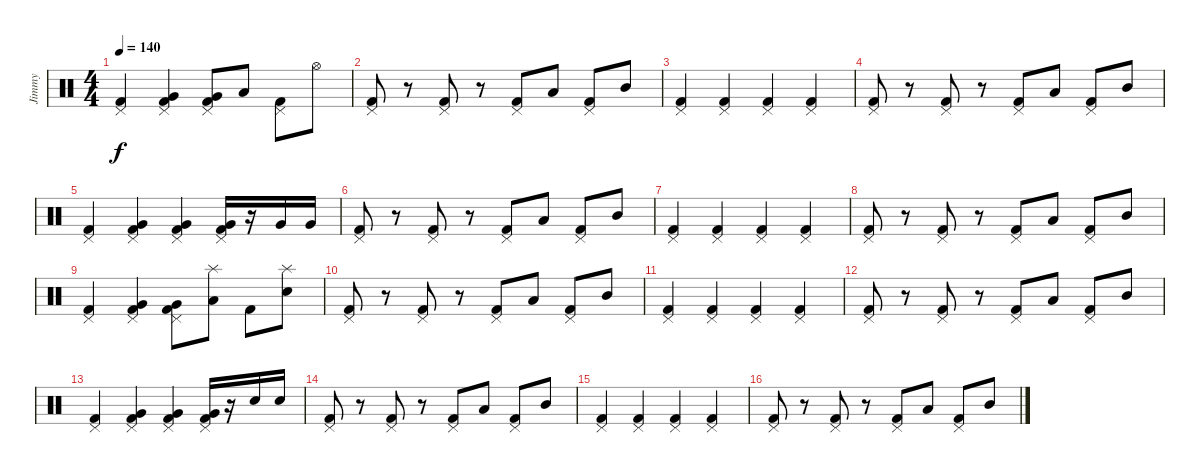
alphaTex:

\track ("Jimmy" "Jimmy") {instrument percussion}
\staff {score}
\articulation defaults
\ts (4 4)
\tempo 140
\clef neutral
\ks c
("Kick (hit) 2" "Pedal Hi-Hat (hit)").4{dy f} ("Kick (hit) 2" "Pedal Hi-Hat (hit)" "Very Low Tom (hit)").4 ("Kick (hit) 2" "Pedal Hi-Hat (hit)" "Very Low Tom (hit)").8 "Low Tom (hit)".8 ("Kick (hit) 2" "Pedal Hi-Hat (hit)").8 "Hi-Hat (open)".8 |
("Kick (hit) 2" "Pedal Hi-Hat (hit)").8 r.8 ("Kick (hit) 2" "Pedal Hi-Hat (hit)").8 r.8 ("Kick (hit) 2" "Pedal Hi-Hat (hit)").8 "Low Tom (hit)".8 ("Kick (hit) 2" "Pedal Hi-Hat (hit)").8 "Mid Tom (hit)".8 |
("Kick (hit) 2" "Pedal Hi-Hat (hit)").4 ("Kick (hit) 2" "Pedal Hi-Hat (hit)").4 ("Kick (hit) 2" "Pedal Hi-Hat (hit)").4 ("Kick (hit) 2" "Pedal Hi-Hat (hit)").4 |
("Kick (hit) 2" "Pedal Hi-Hat (hit)").8 r.8 ("Kick (hit) 2" "Pedal Hi-Hat (hit)").8 r.8 ("Kick (hit) 2" "Pedal Hi-Hat (hit)").8 "Low Tom (hit)".8 ("Kick (hit) 2" "Pedal Hi-Hat (hit)").8 "Mid Tom (hit)".8 |
("Kick (hit) 2" "Pedal Hi-Hat (hit)").4 ("Kick (hit) 2" "Pedal Hi-Hat (hit)" "Very Low Tom (hit)").4 ("Kick (hit) 2" "Pedal Hi-Hat (hit)" "Very Low Tom (hit)").4 ("Kick (hit) 2" "Pedal Hi-Hat (hit)" "Very Low Tom (hit)").16 r.16 "Very Low Tom (hit)".16 "Very Low Tom (hit)".16 |
("Kick (hit) 2" "Pedal Hi-Hat (hit)").8 r.8 ("Kick (hit) 2" "Pedal Hi-Hat (hit)").8 r.8 ("Kick (hit) 2" "Pedal Hi-Hat (hit)").8 "Low Tom (hit)".8 ("Kick (hit) 2" "Pedal Hi-Hat (hit)").8 "Mid Tom (hit)".8 |
("Kick (hit) 2" "Pedal Hi-Hat (hit)").4 ("Kick (hit) 2" "Pedal Hi-Hat (hit)").4 ("Kick (hit) 2" "Pedal Hi-Hat (hit)").4 ("Kick (hit) 2" "Pedal Hi-Hat (hit)").4 |
("Kick (hit) 2" "Pedal Hi-Hat (hit)").8 r.8 ("Kick (hit) 2" "Pedal Hi-Hat (hit)").8 r.8 ("Kick (hit) 2" "Pedal Hi-Hat (hit)").8 "Low Tom (hit)".8 ("Kick (hit) 2" "Pedal Hi-Hat (hit)").8 "Mid Tom (hit)".8 |
("Kick (hit) 2" "Pedal Hi-Hat (hit)").4 ("Kick (hit) 2" "Pedal Hi-Hat (hit)" "Very Low Tom (hit)").4 ("Kick (hit) 2" "Pedal Hi-Hat (hit)" "Very Low Tom (hit)").8 ("Low Tom (hit)" "Splash (hit)").8 "Kick (hit) 2".8 ("Snare (hit) 2" "Splash (hit)").8 |
("Kick (hit) 2" "Pedal Hi-Hat (hit)").8 r.8 ("Kick (hit) 2" "Pedal Hi-Hat (hit)").8 r.8 ("Kick (hit) 2" "Pedal Hi-Hat (hit)").8 "Low Tom (hit)".8 ("Kick (hit) 2" "Pedal Hi-Hat (hit)").8 "Mid Tom (hit)".8 |
("Kick (hit) 2" "Pedal Hi-Hat (hit)").4 ("Kick (hit) 2" "Pedal Hi-Hat (hit)").4 ("Kick (hit) 2" "Pedal Hi-Hat (hit)").4 ("Kick (hit) 2" "Pedal Hi-Hat (hit)").4 |
("Kick (hit) 2" "Pedal Hi-Hat (hit)").8 r.8 ("Kick (hit) 2" "Pedal Hi-Hat (hit)").8 r.8 ("Kick (hit) 2" "Pedal Hi-Hat (hit)").8 "Low Tom (hit)".8 ("Kick (hit) 2" "Pedal Hi-Hat (hit)").8 "Mid Tom (hit)".8 |
("Kick (hit) 2" "Pedal Hi-Hat (hit)").4 ("Kick (hit) 2" "Pedal Hi-Hat (hit)" "Very Low Tom (hit)").4 ("Kick (hit) 2" "Pedal Hi-Hat (hit)" "Very Low Tom (hit)").4 ("Kick (hit) 2" "Pedal Hi-Hat (hit)" "Very Low Tom (hit)").16 r.16 "Snare (hit) 2".16 "Snare (hit) 2".16 |
("Kick (hit) 2" "Pedal Hi-Hat (hit)").8 r.8 ("Kick (hit) 2" "Pedal Hi-Hat (hit)").8 r.8 ("Kick (hit) 2" "Pedal Hi-Hat (hit)").8 "Low Tom (hit)".8 ("Kick (hit) 2" "Pedal Hi-Hat (hit)").8 "Mid Tom (hit)".8 |
("Kick (hit) 2" "Pedal Hi-Hat (hit)").4 ("Kick (hit) 2" "Pedal Hi-Hat (hit)").4 ("Kick (hit) 2" "Pedal Hi-Hat (hit)").4 ("Kick (hit) 2" "Pedal Hi-Hat (hit)").4 |
("Kick (hit) 2" "Pedal Hi-Hat (hit)").8 r.8 ("Kick (hit) 2" "Pedal Hi-Hat (hit)").8 r.8 ("Kick (hit) 2" "Pedal Hi-Hat (hit)").8 "Low Tom (hit)".8 ("Kick (hit) 2" "Pedal Hi-Hat (hit)").8 "Mid Tom (hit)".8
